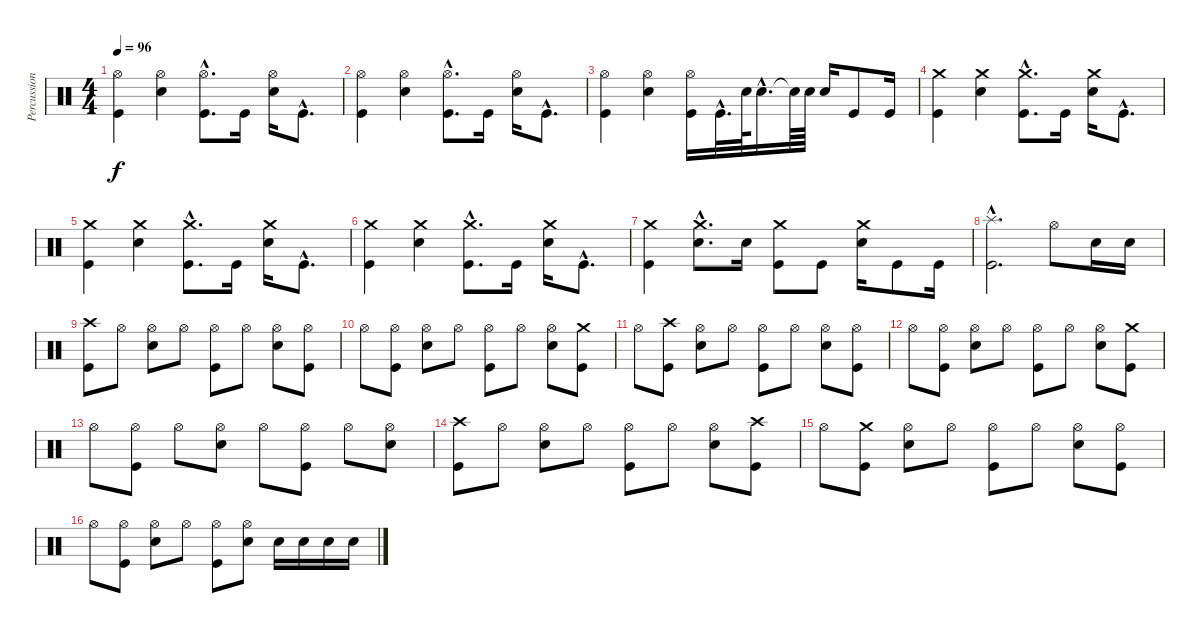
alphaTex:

\track ("Percussion" "Percussion") {instrument percussion}
\staff {score}
\articulation defaults
\ts (4 4)
\tempo 96
\clef neutral
\ks c
("Kick (hit)" "Hi-Hat (open)").4{dy f} ("Electric Snare (hit)" "Hi-Hat (open)").4 ("Kick (hit)"{hac} "Hi-Hat (open)"{hac}).8{d} "Kick (hit)".16 ("Electric Snare (hit)" "Hi-Hat (open)").16 "Kick (hit)"{hac}.8{d} |
("Kick (hit)" "Hi-Hat (open)").4 ("Electric Snare (hit)" "Hi-Hat (open)").4 ("Kick (hit)"{hac} "Hi-Hat (open)"{hac}).8{d} "Kick (hit)".16 ("Electric Snare (hit)" "Hi-Hat (open)").16 "Kick (hit)"{hac}.8{d} |
("Kick (hit)" "Hi-Hat (open)").4 ("Electric Snare (hit)" "Hi-Hat (open)").4 ("Hi-Hat (open)" "Kick (hit)").16 "Kick (hit)"{hac}.32{d} "Electric Snare (hit)".64 "Electric Snare (hit)"{hac}.16{d} "Snare (hit)"{t}.64 "Electric Snare (hit)".64 "Electric Snare (hit)".16 "Kick (hit)".8 "Kick (hit)".16 |
("Crash medium (hit)" "Kick (hit)").4 ("Crash medium (hit)" "Electric Snare (hit)").4 ("Crash medium (hit)"{hac} "Kick (hit)"{hac}).8{d} "Kick (hit)".16 ("Crash medium (hit)" "Electric Snare (hit)").16 "Kick (hit)"{hac}.8{d} |
("Crash medium (hit)" "Kick (hit)").4 ("Crash medium (hit)" "Electric Snare (hit)").4 ("Crash medium (hit)"{hac} "Kick (hit)"{hac}).8{d} "Kick (hit)".16 ("Crash medium (hit)" "Electric Snare (hit)").16 "Kick (hit)"{hac}.8{d} |
("Crash medium (hit)" "Kick (hit)").4 ("Crash medium (hit)" "Electric Snare (hit)").4 ("Crash medium (hit)"{hac} "Kick (hit)"{hac}).8{d} "Kick (hit)".16 ("Crash medium (hit)" "Electric Snare (hit)").16 "Kick (hit)"{hac}.8{d} |
("Kick (hit)" "Crash medium (hit)").4 ("Electric Snare (hit)"{hac} "Crash medium (hit)"{hac}).8{d} "Electric Snare (hit)".16 ("Kick (hit)" "Crash medium (hit)").8 "Kick (hit)".8 ("Electric Snare (hit)" "Crash medium (hit)").16 "Kick (hit)".8 "Kick (hit)".16 |
("Splash (hit)"{hac} "Kick (hit)"{hac}).2{d} "Hi-Hat (open)".8 "Electric Snare (hit)".16 "Electric Snare (hit)".16 |
("Kick (hit)" "Crash high (hit)").8 "Hi-Hat (open)".8 ("Electric Snare (hit)" "Hi-Hat (open)").8 "Hi-Hat (open)".8 ("Kick (hit)" "Hi-Hat (open)").8 "Hi-Hat (open)".8 ("Electric Snare (hit)" "Hi-Hat (open)").8 ("Kick (hit)" "Hi-Hat (open)").8 |
"Hi-Hat (open)".8 ("Kick (hit)" "Hi-Hat (open)").8 ("Electric Snare (hit)" "Hi-Hat (open)").8 "Hi-Hat (open)".8 ("Kick (hit)" "Hi-Hat (open)").8 "Hi-Hat (open)".8 ("Electric Snare (hit)" "Hi-Hat (open)").8 ("Crash medium (hit)" "Kick (hit)").8 |
"Hi-Hat (open)".8 ("Kick (hit)" "Crash high (hit)").8 ("Electric Snare (hit)" "Hi-Hat (open)").8 "Hi-Hat (open)".8 ("Kick (hit)" "Hi-Hat (open)").8 "Hi-Hat (open)".8 ("Electric Snare (hit)" "Hi-Hat (open)").8 ("Kick (hit)" "Hi-Hat (open)").8 |
"Hi-Hat (open)".8 ("Kick (hit)" "Hi-Hat (open)").8 ("Electric Snare (hit)" "Hi-Hat (open)").8 "Hi-Hat (open)".8 ("Kick (hit)" "Hi-Hat (open)").8 "Hi-Hat (open)".8 ("Electric Snare (hit)" "Hi-Hat (open)").8 ("Kick (hit)" "Crash medium (hit)").8 |
"Hi-Hat (open)".8 ("Kick (hit)" "Hi-Hat (open)").8 "Hi-Hat (open)".8 ("Electric Snare (hit)" "Hi-Hat (open)").8 "Hi-Hat (open)".8 ("Kick (hit)" "Hi-Hat (open)").8 "Hi-Hat (open)".8 ("Electric Snare (hit)" "Hi-Hat (open)").8 |
("Kick (hit)" "Crash high (hit)").8 "Hi-Hat (open)".8 ("Electric Snare (hit)" "Hi-Hat (open)").8 "Hi-Hat (open)".8 ("Kick (hit)" "Hi-Hat (open)").8 "Hi-Hat (open)".8 ("Electric Snare (hit)" "Hi-Hat (open)").8 ("Kick (hit)" "Crash high (hit)").8 |
"Hi-Hat (open)".8 ("Kick (hit)" "Crash medium (hit)").8 ("Electric Snare (hit)" "Hi-Hat (open)").8 "Hi-Hat (open)".8 ("Kick (hit)" "Hi-Hat (open)").8 "Hi-Hat (open)".8 ("Electric Snare (hit)" "Hi-Hat (open)").8 ("Kick (hit)" "Hi-Hat (open)").8 |
"Hi-Hat (open)".8 ("Kick (hit)" "Hi-Hat (open)").8 ("Electric Snare (hit)" "Hi-Hat (open)").8 "Hi-Hat (open)".8 ("Kick (hit)" "Hi-Hat (open)").8 ("Electric Snare (hit)" "Hi-Hat (open)").8 "Electric Snare (hit)".16 "Electric Snare (hit)".16 "Electric Snare (hit)".16 "Electric Snare (hit)".16
